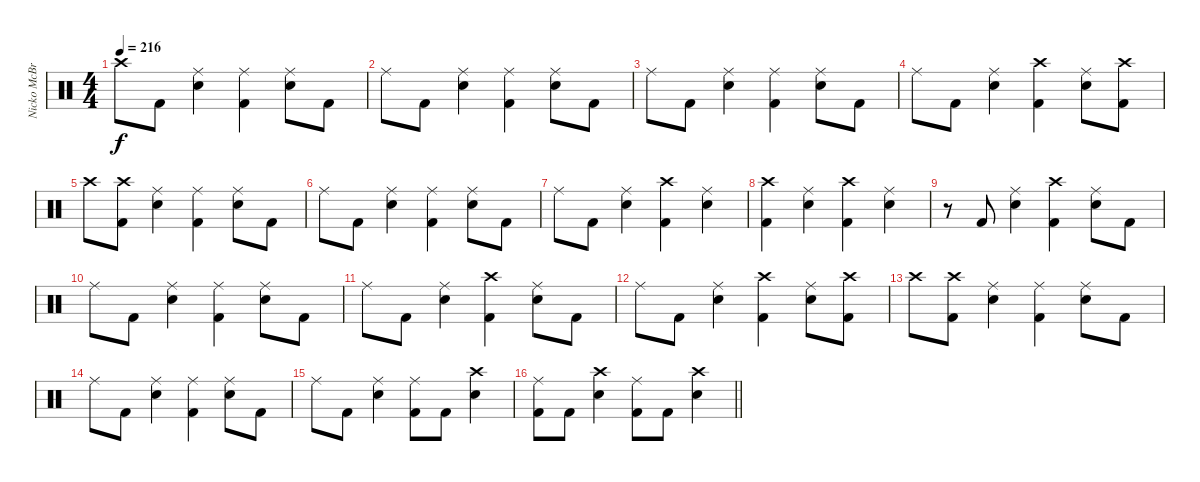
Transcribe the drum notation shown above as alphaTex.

\track ("Nicko McBrain" "Nicko McBr") {instrument percussion}
\staff {score}
\articulation defaults
\ts (4 4)
\tempo 216
\clef neutral
\ks c "Crash high (hit)".8{dy f} "Kick (hit) 2".8
("Ride (middle)" "Snare (hit) 2").4 ("Ride (middle)" "Kick (hit) 2").4 ("Ride (middle)" "Snare (hit) 2").8 "Kick (hit) 2".8 |
"Ride (middle)".8 "Kick (hit) 2".8 ("Ride (middle)" "Snare (hit) 2").4 ("Ride (middle)" "Kick (hit) 2").4 ("Ride (middle)" "Snare (hit) 2").8 "Kick (hit) 2".8 |
"Ride (middle)".8 "Kick (hit) 2".8 ("Ride (middle)" "Snare (hit) 2").4 ("Ride (middle)" "Kick (hit) 2").4 ("Ride (middle)" "Snare (hit) 2").8 "Kick (hit) 2".8 |
"Ride (middle)".8 "Kick (hit) 2".8 ("Ride (middle)" "Snare (hit) 2").4 ("Crash high (hit)" "Kick (hit) 2").4 ("Ride (middle)" "Snare (hit) 2").8 ("Crash high (hit)" "Kick (hit) 2").8 |
"Crash high (hit)".8 ("Crash high (hit)" "Kick (hit) 2").8 ("Ride (middle)" "Snare (hit) 2").4 ("Ride (middle)" "Kick (hit) 2").4 ("Ride (middle)" "Snare (hit) 2").8 "Kick (hit) 2".8 |
"Ride (middle)".8 "Kick (hit) 2".8 ("Ride (middle)" "Snare (hit) 2").4 ("Ride (middle)" "Kick (hit) 2").4 ("Ride (middle)" "Snare (hit) 2").8 "Kick (hit) 2".8 |
"Ride (middle)".8 "Kick (hit) 2".8 ("Ride (middle)" "Snare (hit) 2").4 ("Crash high (hit)" "Kick (hit) 2").4 ("Ride (middle)" "Snare (hit) 2").4 |
("Crash high (hit)" "Kick (hit) 2").4 ("Ride (middle)" "Snare (hit) 2").4 ("Crash high (hit)" "Kick (hit) 2").4 ("Ride (middle)" "Snare (hit) 2").4 |
r.8 "Kick (hit) 2".8 ("Ride (middle)" "Snare (hit) 2").4 ("Crash high (hit)" "Kick (hit) 2").4 ("Ride (middle)" "Snare (hit) 2").8 "Kick (hit) 2".8 |
"Ride (middle)".8 "Kick (hit) 2".8 ("Ride (middle)" "Snare (hit) 2").4 ("Ride (middle)" "Kick (hit) 2").4 ("Ride (middle)" "Snare (hit) 2").8 "Kick (hit) 2".8 |
"Ride (middle)".8 "Kick (hit) 2".8 ("Ride (middle)" "Snare (hit) 2").4 ("Crash high (hit)" "Kick (hit) 2").4 ("Ride (middle)" "Snare (hit) 2").8 "Kick (hit) 2".8 |
"Ride (middle)".8 "Kick (hit) 2".8 ("Ride (middle)" "Snare (hit) 2").4 ("Crash high (hit)" "Kick (hit) 2").4 ("Ride (middle)" "Snare (hit) 2").8 ("Crash high (hit)" "Kick (hit) 2").8 |
"Crash high (hit)".8 ("Crash high (hit)" "Kick (hit) 2").8 ("Ride (middle)" "Snare (hit) 2").4 ("Ride (middle)" "Kick (hit) 2").4 ("Ride (middle)" "Snare (hit) 2").8 "Kick (hit) 2".8 |
"Ride (middle)".8 "Kick (hit) 2".8 ("Ride (middle)" "Snare (hit) 2").4 ("Ride (middle)" "Kick (hit) 2").4 ("Ride (middle)" "Snare (hit) 2").8 "Kick (hit) 2".8 |
"Ride (middle)".8 "Kick (hit) 2".8 ("Ride (middle)" "Snare (hit) 2").4 ("Ride (middle)" "Kick (hit) 2").8 "Kick (hit) 2".8 ("Crash high (hit)" "Snare (hit) 2").4 |
\barLineRight lightlight
("Ride (middle)" "Kick (hit) 2").8 "Kick (hit) 2".8 ("Crash high (hit)" "Snare (hit) 2").4 ("Ride (middle)" "Kick (hit) 2").8 "Kick (hit) 2".8 ("Crash high (hit)" "Snare (hit) 2").4
